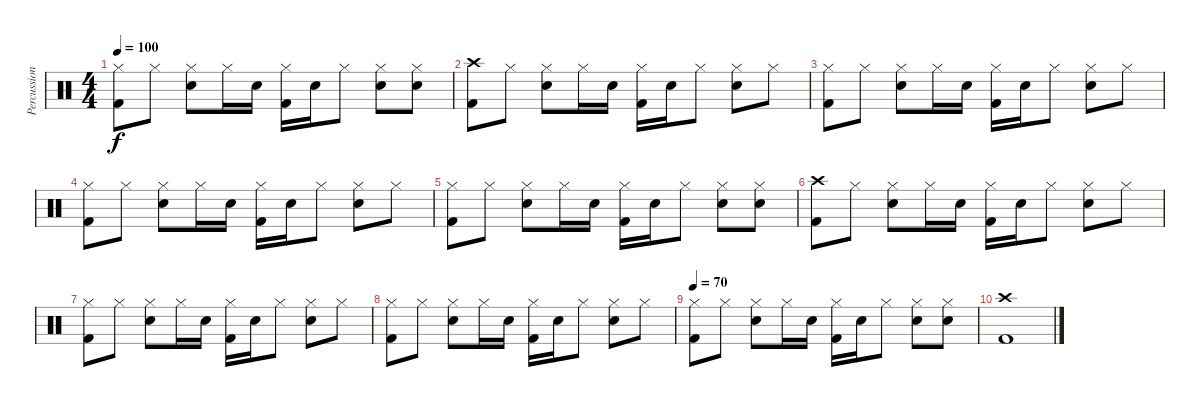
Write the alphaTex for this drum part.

\track ("Percussions" "Percussion") {instrument percussion}
\staff {score}
\articulation defaults
\ts (4 4)
\tempo 100
\clef neutral
\ks c
("Hi-Hat (closed)" "Kick (hit) 2").8{dy f} "Hi-Hat (closed)".8 ("Hi-Hat (closed)" "Electric Snare (hit)").8 "Hi-Hat (closed)".16 "Electric Snare (hit)".16 ("Hi-Hat (closed)" "Kick (hit) 2").16 "Electric Snare (hit)".16 "Hi-Hat (closed)".8 ("Hi-Hat (closed)" "Electric Snare (hit)").8 ("Hi-Hat (closed)" "Electric Snare (hit)").8 |
("Crash high (hit)" "Kick (hit) 2").8 "Hi-Hat (closed)".8 ("Hi-Hat (closed)" "Electric Snare (hit)").8 "Hi-Hat (closed)".16 "Electric Snare (hit)".16 ("Hi-Hat (closed)" "Kick (hit) 2").16 "Electric Snare (hit)".16 "Hi-Hat (closed)".8 ("Hi-Hat (closed)" "Electric Snare (hit)").8 "Hi-Hat (closed)".8 |
("Hi-Hat (closed)" "Kick (hit) 2").8 "Hi-Hat (closed)".8 ("Hi-Hat (closed)" "Electric Snare (hit)").8 "Hi-Hat (closed)".16 "Electric Snare (hit)".16 ("Hi-Hat (closed)" "Kick (hit) 2").16 "Electric Snare (hit)".16 "Hi-Hat (closed)".8 ("Hi-Hat (closed)" "Electric Snare (hit)").8 "Hi-Hat (closed)".8 |
("Hi-Hat (closed)" "Kick (hit) 2").8 "Hi-Hat (closed)".8 ("Hi-Hat (closed)" "Electric Snare (hit)").8 "Hi-Hat (closed)".16 "Electric Snare (hit)".16 ("Hi-Hat (closed)" "Kick (hit) 2").16 "Electric Snare (hit)".16 "Hi-Hat (closed)".8 ("Hi-Hat (closed)" "Electric Snare (hit)").8 "Hi-Hat (closed)".8 |
("Hi-Hat (closed)" "Kick (hit) 2").8 "Hi-Hat (closed)".8 ("Hi-Hat (closed)" "Electric Snare (hit)").8 "Hi-Hat (closed)".16 "Electric Snare (hit)".16 ("Hi-Hat (closed)" "Kick (hit) 2").16 "Electric Snare (hit)".16 "Hi-Hat (closed)".8 ("Hi-Hat (closed)" "Electric Snare (hit)").8 ("Hi-Hat (closed)" "Electric Snare (hit)").8 |
("Crash high (hit)" "Kick (hit) 2").8 "Hi-Hat (closed)".8 ("Hi-Hat (closed)" "Electric Snare (hit)").8 "Hi-Hat (closed)".16 "Electric Snare (hit)".16 ("Hi-Hat (closed)" "Kick (hit) 2").16 "Electric Snare (hit)".16 "Hi-Hat (closed)".8 ("Hi-Hat (closed)" "Electric Snare (hit)").8 "Hi-Hat (closed)".8 |
("Hi-Hat (closed)" "Kick (hit) 2").8 "Hi-Hat (closed)".8 ("Hi-Hat (closed)" "Electric Snare (hit)").8 "Hi-Hat (closed)".16 "Electric Snare (hit)".16 ("Hi-Hat (closed)" "Kick (hit) 2").16 "Electric Snare (hit)".16 "Hi-Hat (closed)".8 ("Hi-Hat (closed)" "Electric Snare (hit)").8 "Hi-Hat (closed)".8 |
("Hi-Hat (closed)" "Kick (hit) 2").8 "Hi-Hat (closed)".8 ("Hi-Hat (closed)" "Electric Snare (hit)").8 "Hi-Hat (closed)".16 "Electric Snare (hit)".16 ("Hi-Hat (closed)" "Kick (hit) 2").16 "Electric Snare (hit)".16 "Hi-Hat (closed)".8 ("Hi-Hat (closed)" "Electric Snare (hit)").8 "Hi-Hat (closed)".8 |
\tempo 70
("Hi-Hat (closed)" "Kick (hit) 2").8 "Hi-Hat (closed)".8 ("Hi-Hat (closed)" "Electric Snare (hit)").8 "Hi-Hat (closed)".16 "Electric Snare (hit)".16 ("Hi-Hat (closed)" "Kick (hit) 2").16 "Electric Snare (hit)".16 "Hi-Hat (closed)".8 ("Hi-Hat (closed)" "Electric Snare (hit)").8 ("Hi-Hat (closed)" "Electric Snare (hit)").8 |
("Crash high (hit)" "Kick (hit) 2").1
